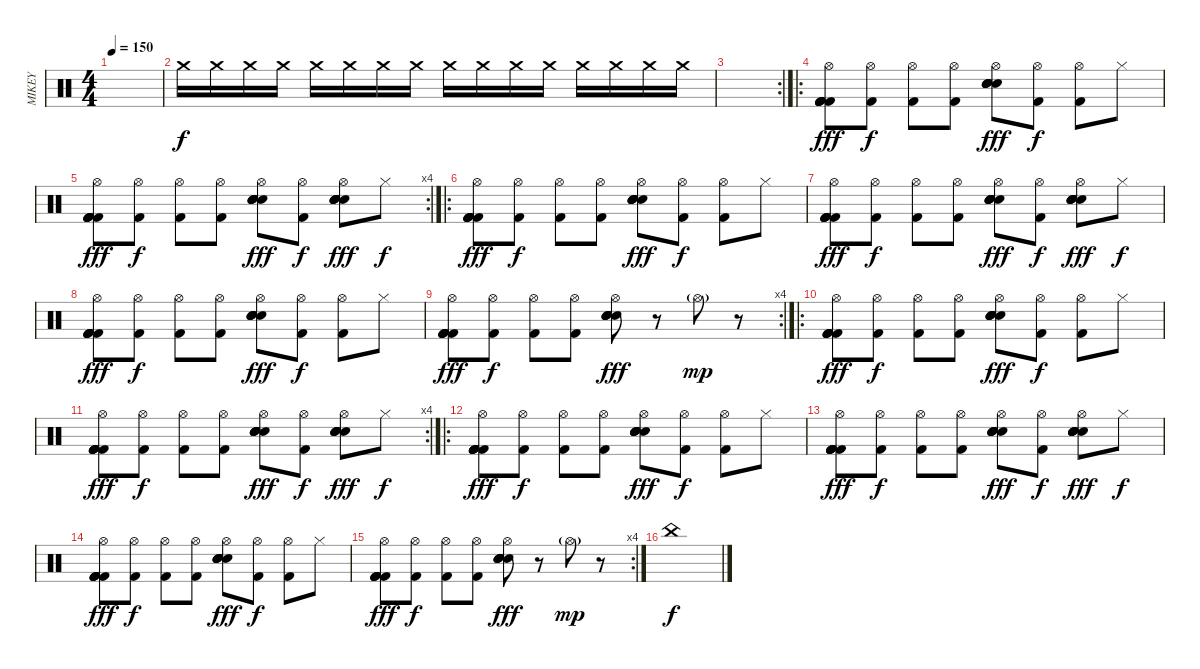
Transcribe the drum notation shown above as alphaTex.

\track ("MIKEY" "MIKEY") {instrument percussion}
\staff {score}
\articulation defaults
\ts (4 4)
\tempo 150
\clef neutral
\ks c
|
"Crash medium (hit)".16 "Crash medium (hit)".16 "Crash medium (hit)".16 "Crash medium (hit)".16 "Crash medium (hit)".16 "Crash medium (hit)".16 "Crash medium (hit)".16 "Crash medium (hit)".16 "Crash medium (hit)".16 "Crash medium (hit)".16 "Crash medium (hit)".16 "Crash medium (hit)".16 "Crash medium (hit)".16 "Crash medium (hit)".16 "Crash medium (hit)".16 "Crash medium (hit)".16 |
\rc 2
|
\ro
("Kick (hit) 2" "Kick (hit) 2" "Kick (hit) 2" "Kick (hit) 2" "Kick (hit) 2" "Hi-Hat (open)").8{dy fff} ("Kick (hit) 2" "Hi-Hat (open)").8{dy f} ("Kick (hit) 2" "Hi-Hat (open)").8 ("Kick (hit) 2" "Hi-Hat (open)").8 ("Electric Snare (hit)" "Electric Snare (hit)" "Electric Snare (hit)" "Electric Snare (hit)" "Electric Snare (hit)" "Hi-Hat (open)").8{dy fff} ("Kick (hit) 2" "Hi-Hat (open)").8{dy f} ("Kick (hit) 2" "Hi-Hat (open)").8 "Hi-Hat (closed)".8 |
\rc 4
("Kick (hit) 2" "Kick (hit) 2" "Kick (hit) 2" "Kick (hit) 2" "Kick (hit) 2" "Hi-Hat (open)").8{dy fff} ("Kick (hit) 2" "Hi-Hat (open)").8{dy f} ("Kick (hit) 2" "Hi-Hat (open)").8 ("Kick (hit) 2" "Hi-Hat (open)").8 ("Electric Snare (hit)" "Electric Snare (hit)" "Electric Snare (hit)" "Electric Snare (hit)" "Electric Snare (hit)" "Hi-Hat (open)").8{dy fff} ("Kick (hit) 2" "Hi-Hat (open)").8{dy f} ("Electric Snare (hit)" "Electric Snare (hit)" "Electric Snare (hit)" "Electric Snare (hit)" "Electric Snare (hit)" "Hi-Hat (open)").8{dy fff} "Hi-Hat (closed)".8{dy f} |
\ro
("Kick (hit) 2" "Kick (hit) 2" "Kick (hit) 2" "Kick (hit) 2" "Kick (hit) 2" "Hi-Hat (open)").8{dy fff} ("Kick (hit) 2" "Hi-Hat (open)").8{dy f} ("Kick (hit) 2" "Hi-Hat (open)").8 ("Kick (hit) 2" "Hi-Hat (open)").8 ("Electric Snare (hit)" "Electric Snare (hit)" "Electric Snare (hit)" "Electric Snare (hit)" "Electric Snare (hit)" "Hi-Hat (open)").8{dy fff} ("Kick (hit) 2" "Hi-Hat (open)").8{dy f} ("Kick (hit) 2" "Hi-Hat (open)").8 "Hi-Hat (closed)".8 |
("Kick (hit) 2" "Kick (hit) 2" "Kick (hit) 2" "Kick (hit) 2" "Kick (hit) 2" "Hi-Hat (open)").8{dy fff} ("Kick (hit) 2" "Hi-Hat (open)").8{dy f} ("Kick (hit) 2" "Hi-Hat (open)").8 ("Kick (hit) 2" "Hi-Hat (open)").8 ("Electric Snare (hit)" "Electric Snare (hit)" "Electric Snare (hit)" "Electric Snare (hit)" "Electric Snare (hit)" "Hi-Hat (open)").8{dy fff} ("Kick (hit) 2" "Hi-Hat (open)").8{dy f} ("Electric Snare (hit)" "Electric Snare (hit)" "Electric Snare (hit)" "Electric Snare (hit)" "Electric Snare (hit)" "Hi-Hat (open)").8{dy fff} "Hi-Hat (closed)".8{dy f} |
("Kick (hit) 2" "Kick (hit) 2" "Kick (hit) 2" "Kick (hit) 2" "Kick (hit) 2" "Hi-Hat (open)").8{dy fff} ("Kick (hit) 2" "Hi-Hat (open)").8{dy f} ("Kick (hit) 2" "Hi-Hat (open)").8 ("Kick (hit) 2" "Hi-Hat (open)").8 ("Electric Snare (hit)" "Electric Snare (hit)" "Electric Snare (hit)" "Electric Snare (hit)" "Electric Snare (hit)" "Hi-Hat (open)").8{dy fff} ("Kick (hit) 2" "Hi-Hat (open)").8{dy f} ("Kick (hit) 2" "Hi-Hat (open)").8 "Hi-Hat (closed)".8 |
\rc 4
("Kick (hit) 2" "Kick (hit) 2" "Kick (hit) 2" "Kick (hit) 2" "Kick (hit) 2" "Hi-Hat (open)").8{dy fff} ("Kick (hit) 2" "Hi-Hat (open)").8{dy f} ("Kick (hit) 2" "Hi-Hat (open)").8 ("Kick (hit) 2" "Hi-Hat (open)").8 ("Electric Snare (hit)" "Electric Snare (hit)" "Electric Snare (hit)" "Electric Snare (hit)" "Electric Snare (hit)" "Hi-Hat (open)").8{dy fff} r.8 "Hi-Hat (open)"{g}.8{dy mp} r.8 |
\ro
("Kick (hit) 2" "Kick (hit) 2" "Kick (hit) 2" "Kick (hit) 2" "Kick (hit) 2" "Hi-Hat (open)").8{dy fff} ("Kick (hit) 2" "Hi-Hat (open)").8{dy f} ("Kick (hit) 2" "Hi-Hat (open)").8 ("Kick (hit) 2" "Hi-Hat (open)").8 ("Electric Snare (hit)" "Electric Snare (hit)" "Electric Snare (hit)" "Electric Snare (hit)" "Electric Snare (hit)" "Hi-Hat (open)").8{dy fff} ("Kick (hit) 2" "Hi-Hat (open)").8{dy f} ("Kick (hit) 2" "Hi-Hat (open)").8 "Hi-Hat (closed)".8 |
\rc 4
("Kick (hit) 2" "Kick (hit) 2" "Kick (hit) 2" "Kick (hit) 2" "Kick (hit) 2" "Hi-Hat (open)").8{dy fff} ("Kick (hit) 2" "Hi-Hat (open)").8{dy f} ("Kick (hit) 2" "Hi-Hat (open)").8 ("Kick (hit) 2" "Hi-Hat (open)").8 ("Electric Snare (hit)" "Electric Snare (hit)" "Electric Snare (hit)" "Electric Snare (hit)" "Electric Snare (hit)" "Hi-Hat (open)").8{dy fff} ("Kick (hit) 2" "Hi-Hat (open)").8{dy f} ("Electric Snare (hit)" "Electric Snare (hit)" "Electric Snare (hit)" "Electric Snare (hit)" "Electric Snare (hit)" "Hi-Hat (open)").8{dy fff} "Hi-Hat (closed)".8{dy f} |
\ro
("Kick (hit) 2" "Kick (hit) 2" "Kick (hit) 2" "Kick (hit) 2" "Kick (hit) 2" "Hi-Hat (open)").8{dy fff} ("Kick (hit) 2" "Hi-Hat (open)").8{dy f} ("Kick (hit) 2" "Hi-Hat (open)").8 ("Kick (hit) 2" "Hi-Hat (open)").8 ("Electric Snare (hit)" "Electric Snare (hit)" "Electric Snare (hit)" "Electric Snare (hit)" "Electric Snare (hit)" "Hi-Hat (open)").8{dy fff} ("Kick (hit) 2" "Hi-Hat (open)").8{dy f} ("Kick (hit) 2" "Hi-Hat (open)").8 "Hi-Hat (closed)".8 |
("Kick (hit) 2" "Kick (hit) 2" "Kick (hit) 2" "Kick (hit) 2" "Kick (hit) 2" "Hi-Hat (open)").8{dy fff} ("Kick (hit) 2" "Hi-Hat (open)").8{dy f} ("Kick (hit) 2" "Hi-Hat (open)").8 ("Kick (hit) 2" "Hi-Hat (open)").8 ("Electric Snare (hit)" "Electric Snare (hit)" "Electric Snare (hit)" "Electric Snare (hit)" "Electric Snare (hit)" "Hi-Hat (open)").8{dy fff} ("Kick (hit) 2" "Hi-Hat (open)").8{dy f} ("Electric Snare (hit)" "Electric Snare (hit)" "Electric Snare (hit)" "Electric Snare (hit)" "Electric Snare (hit)" "Hi-Hat (open)").8{dy fff} "Hi-Hat (closed)".8{dy f} |
("Kick (hit) 2" "Kick (hit) 2" "Kick (hit) 2" "Kick (hit) 2" "Kick (hit) 2" "Hi-Hat (open)").8{dy fff} ("Kick (hit) 2" "Hi-Hat (open)").8{dy f} ("Kick (hit) 2" "Hi-Hat (open)").8 ("Kick (hit) 2" "Hi-Hat (open)").8 ("Electric Snare (hit)" "Electric Snare (hit)" "Electric Snare (hit)" "Electric Snare (hit)" "Electric Snare (hit)" "Hi-Hat (open)").8{dy fff} ("Kick (hit) 2" "Hi-Hat (open)").8{dy f} ("Kick (hit) 2" "Hi-Hat (open)").8 "Hi-Hat (closed)".8 |
\rc 4
("Kick (hit) 2" "Kick (hit) 2" "Kick (hit) 2" "Kick (hit) 2" "Kick (hit) 2" "Hi-Hat (open)").8{dy fff} ("Kick (hit) 2" "Hi-Hat (open)").8{dy f} ("Kick (hit) 2" "Hi-Hat (open)").8 ("Kick (hit) 2" "Hi-Hat (open)").8 ("Electric Snare (hit)" "Electric Snare (hit)" "Electric Snare (hit)" "Electric Snare (hit)" "Electric Snare (hit)" "Hi-Hat (open)").8{dy fff} r.8 "Hi-Hat (open)"{g}.8{dy mp} r.8 |
"China (hit)".1{dy f}
